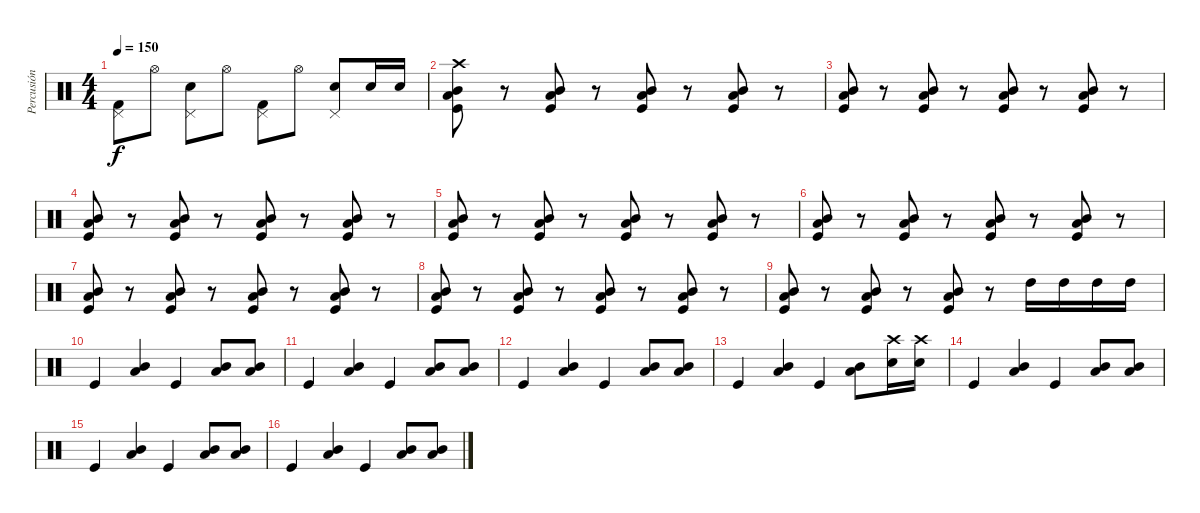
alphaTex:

\track ("Percusión" "Percusión") {instrument percussion}
\staff {score}
\articulation defaults
\ts (4 4)
\tempo 150
\clef neutral
\ks c
("Pedal Hi-Hat (hit)" "Kick (hit) 2").8{dy f} "Hi-Hat (open)".8 ("Pedal Hi-Hat (hit)" "Electric Snare (hit)").8 "Hi-Hat (open)".8 ("Pedal Hi-Hat (hit)" "Kick (hit) 2").8 "Hi-Hat (open)".8 ("Pedal Hi-Hat (hit)" "Electric Snare (hit)").8 "Electric Snare (hit)".16 "Electric Snare (hit)".16 |
("Crash high (hit)" "Low Tom (hit)" "Mid Tom (hit)" "Kick (hit)").8 r.8 ("Low Tom (hit)" "Mid Tom (hit)" "Kick (hit)").8 r.8 ("Low Tom (hit)" "Mid Tom (hit)" "Kick (hit)").8 r.8 ("Low Tom (hit)" "Mid Tom (hit)" "Kick (hit)").8 r.8 |
("Low Tom (hit)" "Mid Tom (hit)" "Kick (hit)").8 r.8 ("Low Tom (hit)" "Mid Tom (hit)" "Kick (hit)").8 r.8 ("Low Tom (hit)" "Mid Tom (hit)" "Kick (hit)").8 r.8 ("Low Tom (hit)" "Mid Tom (hit)" "Kick (hit)").8 r.8 |
("Low Tom (hit)" "Mid Tom (hit)" "Kick (hit)").8 r.8 ("Low Tom (hit)" "Mid Tom (hit)" "Kick (hit)").8 r.8 ("Low Tom (hit)" "Mid Tom (hit)" "Kick (hit)").8 r.8 ("Low Tom (hit)" "Mid Tom (hit)" "Kick (hit)").8 r.8 |
("Low Tom (hit)" "Mid Tom (hit)" "Kick (hit)").8 r.8 ("Low Tom (hit)" "Mid Tom (hit)" "Kick (hit)").8 r.8 ("Low Tom (hit)" "Mid Tom (hit)" "Kick (hit)").8 r.8 ("Low Tom (hit)" "Mid Tom (hit)" "Kick (hit)").8 r.8 |
("Low Tom (hit)" "Mid Tom (hit)" "Kick (hit)").8 r.8 ("Low Tom (hit)" "Mid Tom (hit)" "Kick (hit)").8 r.8 ("Low Tom (hit)" "Mid Tom (hit)" "Kick (hit)").8 r.8 ("Low Tom (hit)" "Mid Tom (hit)" "Kick (hit)").8 r.8 |
("Low Tom (hit)" "Mid Tom (hit)" "Kick (hit)").8 r.8 ("Low Tom (hit)" "Mid Tom (hit)" "Kick (hit)").8 r.8 ("Low Tom (hit)" "Mid Tom (hit)" "Kick (hit)").8 r.8 ("Low Tom (hit)" "Mid Tom (hit)" "Kick (hit)").8 r.8 |
("Low Tom (hit)" "Mid Tom (hit)" "Kick (hit)").8 r.8 ("Low Tom (hit)" "Mid Tom (hit)" "Kick (hit)").8 r.8 ("Low Tom (hit)" "Mid Tom (hit)" "Kick (hit)").8 r.8 ("Low Tom (hit)" "Mid Tom (hit)" "Kick (hit)").8 r.8 |
("Low Tom (hit)" "Mid Tom (hit)" "Kick (hit)").8 r.8 ("Low Tom (hit)" "Mid Tom (hit)" "Kick (hit)").8 r.8 ("Low Tom (hit)" "Mid Tom (hit)" "Kick (hit)").8 r.8 "High Tom (hit)".16 "High Tom (hit)".16 "High Tom (hit)".16 "High Tom (hit)".16 |
"Kick (hit)".4 ("Low Tom (hit)" "Mid Tom (hit)").4 "Kick (hit)".4 ("Low Tom (hit)" "Mid Tom (hit)").8 ("Low Tom (hit)" "Mid Tom (hit)").8 |
"Kick (hit)".4 ("Low Tom (hit)" "Mid Tom (hit)").4 "Kick (hit)".4 ("Low Tom (hit)" "Mid Tom (hit)").8 ("Low Tom (hit)" "Mid Tom (hit)").8 |
"Kick (hit)".4 ("Low Tom (hit)" "Mid Tom (hit)").4 "Kick (hit)".4 ("Low Tom (hit)" "Mid Tom (hit)").8 ("Low Tom (hit)" "Mid Tom (hit)").8 |
"Kick (hit)".4 ("Low Tom (hit)" "Mid Tom (hit)").4 "Kick (hit)".4 ("Low Tom (hit)" "Mid Tom (hit)").8 ("Crash high (hit)" "Electric Snare (hit)").16 ("Crash high (hit)" "Electric Snare (hit)").16 |
"Kick (hit)".4 ("Low Tom (hit)" "Mid Tom (hit)").4 "Kick (hit)".4 ("Low Tom (hit)" "Mid Tom (hit)").8 ("Low Tom (hit)" "Mid Tom (hit)").8 |
"Kick (hit)".4 ("Low Tom (hit)" "Mid Tom (hit)").4 "Kick (hit)".4 ("Low Tom (hit)" "Mid Tom (hit)").8 ("Low Tom (hit)" "Mid Tom (hit)").8 |
"Kick (hit)".4 ("Low Tom (hit)" "Mid Tom (hit)").4 "Kick (hit)".4 ("Low Tom (hit)" "Mid Tom (hit)").8 ("Low Tom (hit)" "Mid Tom (hit)").8
